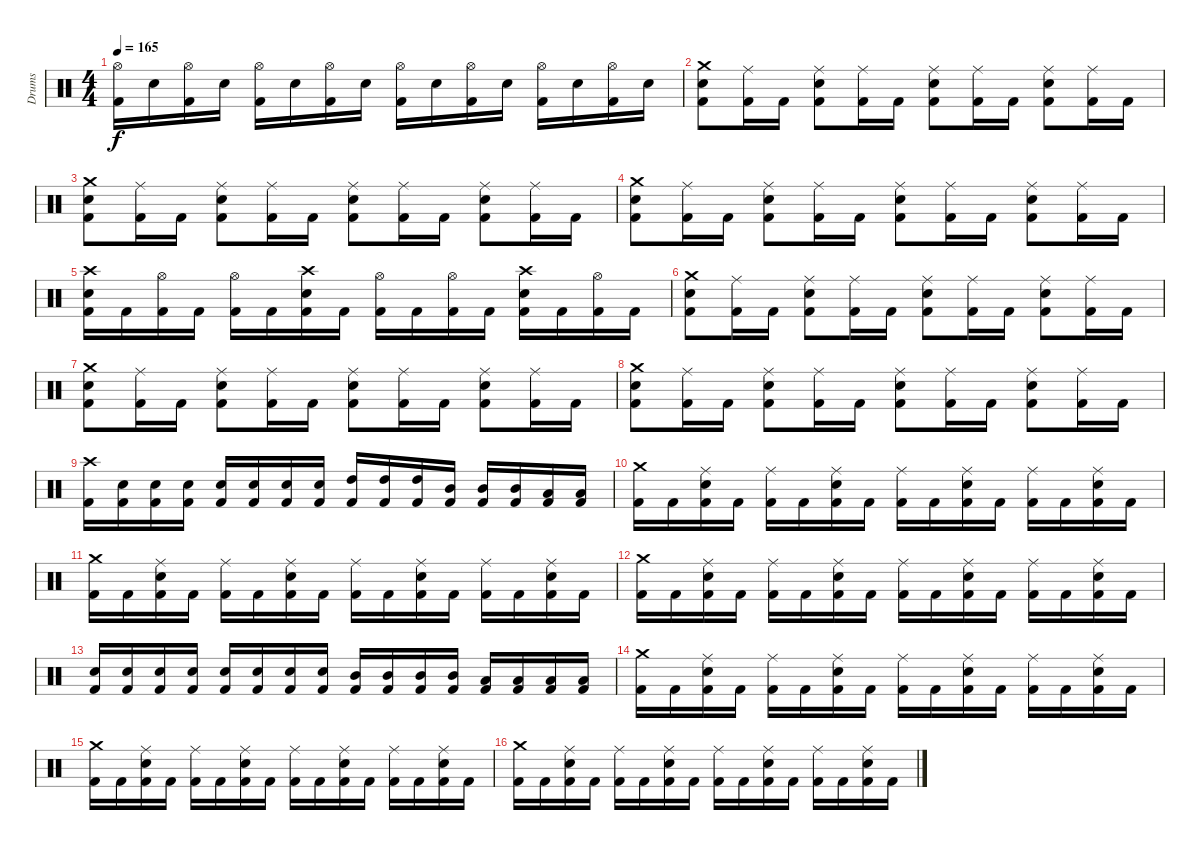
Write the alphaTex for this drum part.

\track ("Drums" "Drums") {instrument percussion}
\staff {score}
\articulation defaults
\ts (4 4)
\tempo 165
\clef neutral
\ks c
("Hi-Hat (open)" "Kick (hit) 2").16{dy f} "Electric Snare (hit)".16 ("Hi-Hat (open)" "Kick (hit) 2").16 "Electric Snare (hit)".16 ("Hi-Hat (open)" "Kick (hit) 2").16 "Electric Snare (hit)".16 ("Hi-Hat (open)" "Kick (hit) 2").16 "Electric Snare (hit)".16 ("Hi-Hat (open)" "Kick (hit) 2").16 "Electric Snare (hit)".16 ("Hi-Hat (open)" "Kick (hit) 2").16 "Electric Snare (hit)".16 ("Hi-Hat (open)" "Kick (hit) 2").16 "Electric Snare (hit)".16 ("Hi-Hat (open)" "Kick (hit) 2").16 "Electric Snare (hit)".16 |
("Crash medium (hit)" "Electric Snare (hit)" "Kick (hit) 2").8 ("Ride (middle)" "Kick (hit) 2").16 "Kick (hit) 2".16 ("Ride (middle)" "Electric Snare (hit)" "Kick (hit) 2").8 ("Ride (middle)" "Kick (hit) 2").16 "Kick (hit) 2".16 ("Ride (middle)" "Electric Snare (hit)" "Kick (hit) 2").8 ("Ride (middle)" "Kick (hit) 2").16 "Kick (hit) 2".16 ("Ride (middle)" "Electric Snare (hit)" "Kick (hit) 2").8 ("Ride (middle)" "Kick (hit) 2").16 "Kick (hit) 2".16 |
("Crash medium (hit)" "Electric Snare (hit)" "Kick (hit) 2").8 ("Ride (middle)" "Kick (hit) 2").16 "Kick (hit) 2".16 ("Ride (middle)" "Electric Snare (hit)" "Kick (hit) 2").8 ("Ride (middle)" "Kick (hit) 2").16 "Kick (hit) 2".16 ("Ride (middle)" "Electric Snare (hit)" "Kick (hit) 2").8 ("Ride (middle)" "Kick (hit) 2").16 "Kick (hit) 2".16 ("Ride (middle)" "Electric Snare (hit)" "Kick (hit) 2").8 ("Ride (middle)" "Kick (hit) 2").16 "Kick (hit) 2".16 |
("Crash medium (hit)" "Electric Snare (hit)" "Kick (hit) 2").8 ("Ride (middle)" "Kick (hit) 2").16 "Kick (hit) 2".16 ("Ride (middle)" "Electric Snare (hit)" "Kick (hit) 2").8 ("Ride (middle)" "Kick (hit) 2").16 "Kick (hit) 2".16 ("Ride (middle)" "Electric Snare (hit)" "Kick (hit) 2").8 ("Ride (middle)" "Kick (hit) 2").16 "Kick (hit) 2".16 ("Ride (middle)" "Electric Snare (hit)" "Kick (hit) 2").8 ("Ride (middle)" "Kick (hit) 2").16 "Kick (hit) 2".16 |
("Crash high (hit)" "Electric Snare (hit)" "Kick (hit) 2").16 "Kick (hit) 2".16 ("Hi-Hat (open)" "Kick (hit) 2").16 "Kick (hit) 2".16 ("Hi-Hat (open)" "Kick (hit) 2").16 "Kick (hit) 2".16 ("Crash high (hit)" "Electric Snare (hit)" "Kick (hit) 2").16 "Kick (hit) 2".16 ("Hi-Hat (open)" "Kick (hit) 2").16 "Kick (hit) 2".16 ("Hi-Hat (open)" "Kick (hit) 2").16 "Kick (hit) 2".16 ("Crash high (hit)" "Electric Snare (hit)" "Kick (hit) 2").16 "Kick (hit) 2".16 ("Hi-Hat (open)" "Kick (hit) 2").16 "Kick (hit) 2".16 |
("Crash medium (hit)" "Electric Snare (hit)" "Kick (hit) 2").8 ("Ride (middle)" "Kick (hit) 2").16 "Kick (hit) 2".16 ("Ride (middle)" "Electric Snare (hit)" "Kick (hit) 2").8 ("Ride (middle)" "Kick (hit) 2").16 "Kick (hit) 2".16 ("Ride (middle)" "Electric Snare (hit)" "Kick (hit) 2").8 ("Ride (middle)" "Kick (hit) 2").16 "Kick (hit) 2".16 ("Ride (middle)" "Electric Snare (hit)" "Kick (hit) 2").8 ("Ride (middle)" "Kick (hit) 2").16 "Kick (hit) 2".16 |
("Crash medium (hit)" "Electric Snare (hit)" "Kick (hit) 2").8 ("Ride (middle)" "Kick (hit) 2").16 "Kick (hit) 2".16 ("Ride (middle)" "Electric Snare (hit)" "Kick (hit) 2").8 ("Ride (middle)" "Kick (hit) 2").16 "Kick (hit) 2".16 ("Ride (middle)" "Electric Snare (hit)" "Kick (hit) 2").8 ("Ride (middle)" "Kick (hit) 2").16 "Kick (hit) 2".16 ("Ride (middle)" "Electric Snare (hit)" "Kick (hit) 2").8 ("Ride (middle)" "Kick (hit) 2").16 "Kick (hit) 2".16 |
("Crash medium (hit)" "Electric Snare (hit)" "Kick (hit) 2").8 ("Ride (middle)" "Kick (hit) 2").16 "Kick (hit) 2".16 ("Ride (middle)" "Electric Snare (hit)" "Kick (hit) 2").8 ("Ride (middle)" "Kick (hit) 2").16 "Kick (hit) 2".16 ("Ride (middle)" "Electric Snare (hit)" "Kick (hit) 2").8 ("Ride (middle)" "Kick (hit) 2").16 "Kick (hit) 2".16 ("Ride (middle)" "Electric Snare (hit)" "Kick (hit) 2").8 ("Ride (middle)" "Kick (hit) 2").16 "Kick (hit) 2".16 |
("Crash high (hit)" "Kick (hit) 2").16 ("Electric Snare (hit)" "Kick (hit) 2").16 ("Electric Snare (hit)" "Kick (hit) 2").16 ("Electric Snare (hit)" "Kick (hit) 2").16 ("Electric Snare (hit)" "Kick (hit) 2").16 ("Electric Snare (hit)" "Kick (hit) 2").16 ("Electric Snare (hit)" "Kick (hit) 2").16 ("Electric Snare (hit)" "Kick (hit) 2").16 ("High Tom (hit)" "Kick (hit) 2").16 ("High Tom (hit)" "Kick (hit) 2").16 ("High Tom (hit)" "Kick (hit) 2").16 ("Mid Tom (hit)" "Kick (hit) 2").16 ("Mid Tom (hit)" "Kick (hit) 2").16 ("Mid Tom (hit)" "Kick (hit) 2").16 ("Low Tom (hit)" "Kick (hit) 2").16 ("Low Tom (hit)" "Kick (hit) 2").16 |
("Crash medium (hit)" "Kick (hit) 2").16 "Kick (hit) 2".16 ("Ride (middle)" "Electric Snare (hit)" "Kick (hit) 2").16 "Kick (hit) 2".16 ("Ride (middle)" "Kick (hit) 2").16 "Kick (hit) 2".16 ("Ride (middle)" "Electric Snare (hit)" "Kick (hit) 2").16 "Kick (hit) 2".16 ("Ride (middle)" "Kick (hit) 2").16 "Kick (hit) 2".16 ("Ride (middle)" "Electric Snare (hit)" "Kick (hit) 2").16 "Kick (hit) 2".16 ("Ride (middle)" "Kick (hit) 2").16 "Kick (hit) 2".16 ("Ride (middle)" "Electric Snare (hit)" "Kick (hit) 2").16 "Kick (hit) 2".16 |
("Crash medium (hit)" "Kick (hit) 2").16 "Kick (hit) 2".16 ("Ride (middle)" "Electric Snare (hit)" "Kick (hit) 2").16 "Kick (hit) 2".16 ("Ride (middle)" "Kick (hit) 2").16 "Kick (hit) 2".16 ("Ride (middle)" "Electric Snare (hit)" "Kick (hit) 2").16 "Kick (hit) 2".16 ("Ride (middle)" "Kick (hit) 2").16 "Kick (hit) 2".16 ("Ride (middle)" "Electric Snare (hit)" "Kick (hit) 2").16 "Kick (hit) 2".16 ("Ride (middle)" "Kick (hit) 2").16 "Kick (hit) 2".16 ("Ride (middle)" "Electric Snare (hit)" "Kick (hit) 2").16 "Kick (hit) 2".16 |
("Crash medium (hit)" "Kick (hit) 2").16 "Kick (hit) 2".16 ("Ride (middle)" "Electric Snare (hit)" "Kick (hit) 2").16 "Kick (hit) 2".16 ("Ride (middle)" "Kick (hit) 2").16 "Kick (hit) 2".16 ("Ride (middle)" "Electric Snare (hit)" "Kick (hit) 2").16 "Kick (hit) 2".16 ("Ride (middle)" "Kick (hit) 2").16 "Kick (hit) 2".16 ("Ride (middle)" "Electric Snare (hit)" "Kick (hit) 2").16 "Kick (hit) 2".16 ("Ride (middle)" "Kick (hit) 2").16 "Kick (hit) 2".16 ("Ride (middle)" "Electric Snare (hit)" "Kick (hit) 2").16 "Kick (hit) 2".16 |
("Electric Snare (hit)" "Kick (hit) 2").16 ("Electric Snare (hit)" "Kick (hit) 2").16 ("Electric Snare (hit)" "Kick (hit) 2").16 ("Electric Snare (hit)" "Kick (hit) 2").16 ("Electric Snare (hit)" "Kick (hit) 2").16 ("Electric Snare (hit)" "Kick (hit) 2").16 ("Electric Snare (hit)" "Kick (hit) 2").16 ("Electric Snare (hit)" "Kick (hit) 2").16 ("Mid Tom (hit)" "Kick (hit) 2").16 ("Mid Tom (hit)" "Kick (hit) 2").16 ("Mid Tom (hit)" "Kick (hit) 2").16 ("Mid Tom (hit)" "Kick (hit) 2").16 ("Low Tom (hit)" "Kick (hit) 2").16 ("Low Tom (hit)" "Kick (hit) 2").16 ("Low Tom (hit)" "Kick (hit) 2").16 ("Low Tom (hit)" "Kick (hit) 2").16 |
("Crash medium (hit)" "Kick (hit) 2").16 "Kick (hit) 2".16 ("Ride (middle)" "Electric Snare (hit)" "Kick (hit) 2").16 "Kick (hit) 2".16 ("Ride (middle)" "Kick (hit) 2").16 "Kick (hit) 2".16 ("Ride (middle)" "Electric Snare (hit)" "Kick (hit) 2").16 "Kick (hit) 2".16 ("Ride (middle)" "Kick (hit) 2").16 "Kick (hit) 2".16 ("Ride (middle)" "Electric Snare (hit)" "Kick (hit) 2").16 "Kick (hit) 2".16 ("Ride (middle)" "Kick (hit) 2").16 "Kick (hit) 2".16 ("Ride (middle)" "Electric Snare (hit)" "Kick (hit) 2").16 "Kick (hit) 2".16 |
("Crash medium (hit)" "Kick (hit) 2").16 "Kick (hit) 2".16 ("Ride (middle)" "Electric Snare (hit)" "Kick (hit) 2").16 "Kick (hit) 2".16 ("Ride (middle)" "Kick (hit) 2").16 "Kick (hit) 2".16 ("Ride (middle)" "Electric Snare (hit)" "Kick (hit) 2").16 "Kick (hit) 2".16 ("Ride (middle)" "Kick (hit) 2").16 "Kick (hit) 2".16 ("Ride (middle)" "Electric Snare (hit)" "Kick (hit) 2").16 "Kick (hit) 2".16 ("Ride (middle)" "Kick (hit) 2").16 "Kick (hit) 2".16 ("Ride (middle)" "Electric Snare (hit)" "Kick (hit) 2").16 "Kick (hit) 2".16 |
("Crash medium (hit)" "Kick (hit) 2").16 "Kick (hit) 2".16 ("Ride (middle)" "Electric Snare (hit)" "Kick (hit) 2").16 "Kick (hit) 2".16 ("Ride (middle)" "Kick (hit) 2").16 "Kick (hit) 2".16 ("Ride (middle)" "Electric Snare (hit)" "Kick (hit) 2").16 "Kick (hit) 2".16 ("Ride (middle)" "Kick (hit) 2").16 "Kick (hit) 2".16 ("Ride (middle)" "Electric Snare (hit)" "Kick (hit) 2").16 "Kick (hit) 2".16 ("Ride (middle)" "Kick (hit) 2").16 "Kick (hit) 2".16 ("Ride (middle)" "Electric Snare (hit)" "Kick (hit) 2").16 "Kick (hit) 2".16
